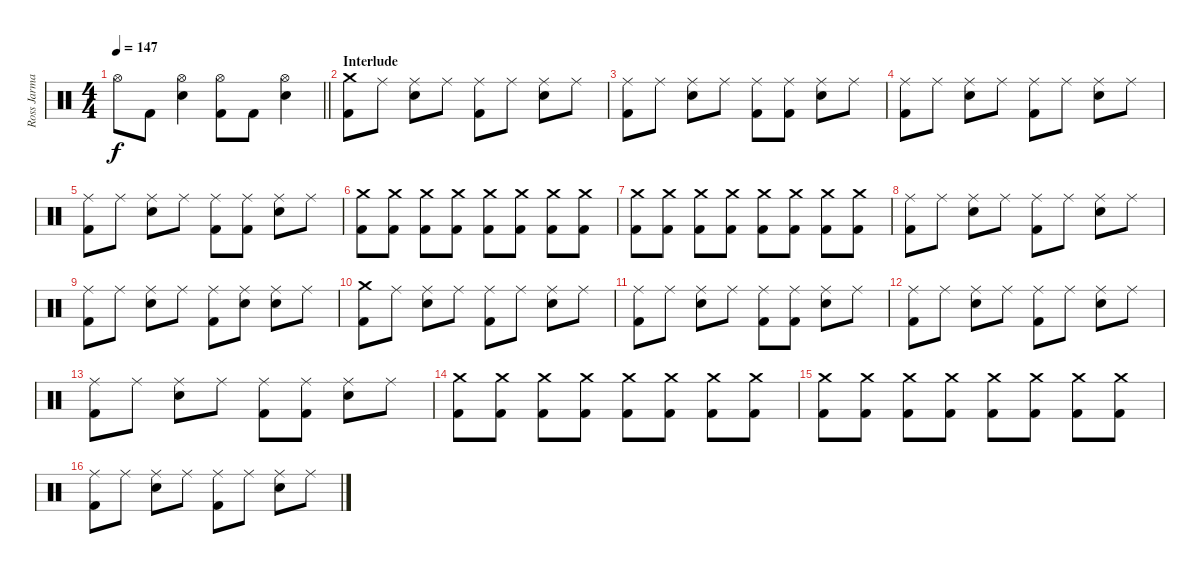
\track ("Ross Jarman (Drums)" "Ross Jarma") {instrument percussion}
\staff {score}
\articulation defaults
\ts (4 4)
\tempo 147
\clef neutral
\barLineRight lightlight
\ks c "Hi-Hat (open)".8{dy f} "Kick (hit) 2".8
("Hi-Hat (open)" "Electric Snare (hit)").4 ("Hi-Hat (open)" "Kick (hit) 2").8 "Kick (hit) 2".8 ("Hi-Hat (open)" "Electric Snare (hit)").4 |
\section ("" "Interlude")
("Crash medium (hit)" "Kick (hit) 2").8 "Ride (middle)".8 ("Ride (middle)" "Electric Snare (hit)").8 "Ride (middle)".8 ("Ride (middle)" "Kick (hit) 2").8 "Ride (middle)".8 ("Ride (middle)" "Electric Snare (hit)").8 "Ride (middle)".8 |
("Ride (middle)" "Kick (hit) 2").8 "Ride (middle)".8 ("Ride (middle)" "Electric Snare (hit)").8 "Ride (middle)".8 ("Ride (middle)" "Kick (hit) 2").8 ("Ride (middle)" "Kick (hit) 2").8 ("Ride (middle)" "Electric Snare (hit)").8 "Ride (middle)".8 |
("Ride (middle)" "Kick (hit) 2").8 "Ride (middle)".8 ("Ride (middle)" "Electric Snare (hit)").8 "Ride (middle)".8 ("Ride (middle)" "Kick (hit) 2").8 "Ride (middle)".8 ("Ride (middle)" "Electric Snare (hit)").8 "Ride (middle)".8 |
("Ride (middle)" "Kick (hit) 2").8 "Ride (middle)".8 ("Ride (middle)" "Electric Snare (hit)").8 "Ride (middle)".8 ("Ride (middle)" "Kick (hit) 2").8 ("Ride (middle)" "Kick (hit) 2").8 ("Ride (middle)" "Electric Snare (hit)").8 "Ride (middle)".8 |
("Crash medium (hit)" "Kick (hit) 2").8 ("Crash medium (hit)" "Kick (hit) 2").8 ("Crash medium (hit)" "Kick (hit) 2").8 ("Crash medium (hit)" "Kick (hit) 2").8 ("Crash medium (hit)" "Kick (hit) 2").8 ("Crash medium (hit)" "Kick (hit) 2").8 ("Crash medium (hit)" "Kick (hit) 2").8 ("Crash medium (hit)" "Kick (hit) 2").8 |
("Crash medium (hit)" "Kick (hit) 2").8 ("Crash medium (hit)" "Kick (hit) 2").8 ("Crash medium (hit)" "Kick (hit) 2").8 ("Crash medium (hit)" "Kick (hit) 2").8 ("Crash medium (hit)" "Kick (hit) 2").8 ("Crash medium (hit)" "Kick (hit) 2").8 ("Crash medium (hit)" "Kick (hit) 2").8 ("Crash medium (hit)" "Kick (hit) 2").8 |
("Ride (middle)" "Kick (hit) 2").8 "Ride (middle)".8 ("Ride (middle)" "Electric Snare (hit)").8 "Ride (middle)".8 ("Ride (middle)" "Kick (hit) 2").8 "Ride (middle)".8 ("Ride (middle)" "Electric Snare (hit)").8 "Ride (middle)".8 |
("Ride (middle)" "Kick (hit) 2").8 "Ride (middle)".8 ("Ride (middle)" "Electric Snare (hit)").8 "Ride (middle)".8 ("Ride (middle)" "Kick (hit) 2").8 ("Ride (middle)" "Electric Snare (hit)").8 ("Ride (middle)" "Electric Snare (hit)").8 "Ride (middle)".8 |
("Crash medium (hit)" "Kick (hit) 2").8 "Ride (middle)".8 ("Ride (middle)" "Electric Snare (hit)").8 "Ride (middle)".8 ("Ride (middle)" "Kick (hit) 2").8 "Ride (middle)".8 ("Ride (middle)" "Electric Snare (hit)").8 "Ride (middle)".8 |
("Ride (middle)" "Kick (hit) 2").8 "Ride (middle)".8 ("Ride (middle)" "Electric Snare (hit)").8 "Ride (middle)".8 ("Ride (middle)" "Kick (hit) 2").8 ("Ride (middle)" "Kick (hit) 2").8 ("Ride (middle)" "Electric Snare (hit)").8 "Ride (middle)".8 |
("Ride (middle)" "Kick (hit) 2").8 "Ride (middle)".8 ("Ride (middle)" "Electric Snare (hit)").8 "Ride (middle)".8 ("Ride (middle)" "Kick (hit) 2").8 "Ride (middle)".8 ("Ride (middle)" "Electric Snare (hit)").8 "Ride (middle)".8 |
("Ride (middle)" "Kick (hit) 2").8 "Ride (middle)".8 ("Ride (middle)" "Electric Snare (hit)").8 "Ride (middle)".8 ("Ride (middle)" "Kick (hit) 2").8 ("Ride (middle)" "Kick (hit) 2").8 ("Ride (middle)" "Electric Snare (hit)").8 "Ride (middle)".8 |
("Crash medium (hit)" "Kick (hit) 2").8 ("Crash medium (hit)" "Kick (hit) 2").8 ("Crash medium (hit)" "Kick (hit) 2").8 ("Crash medium (hit)" "Kick (hit) 2").8 ("Crash medium (hit)" "Kick (hit) 2").8 ("Crash medium (hit)" "Kick (hit) 2").8 ("Crash medium (hit)" "Kick (hit) 2").8 ("Crash medium (hit)" "Kick (hit) 2").8 |
("Crash medium (hit)" "Kick (hit) 2").8 ("Crash medium (hit)" "Kick (hit) 2").8 ("Crash medium (hit)" "Kick (hit) 2").8 ("Crash medium (hit)" "Kick (hit) 2").8 ("Crash medium (hit)" "Kick (hit) 2").8 ("Crash medium (hit)" "Kick (hit) 2").8 ("Crash medium (hit)" "Kick (hit) 2").8 ("Crash medium (hit)" "Kick (hit) 2").8 |
("Ride (middle)" "Kick (hit) 2").8 "Ride (middle)".8 ("Ride (middle)" "Electric Snare (hit)").8 "Ride (middle)".8 ("Ride (middle)" "Kick (hit) 2").8 "Ride (middle)".8 ("Ride (middle)" "Electric Snare (hit)").8 "Ride (middle)".8
